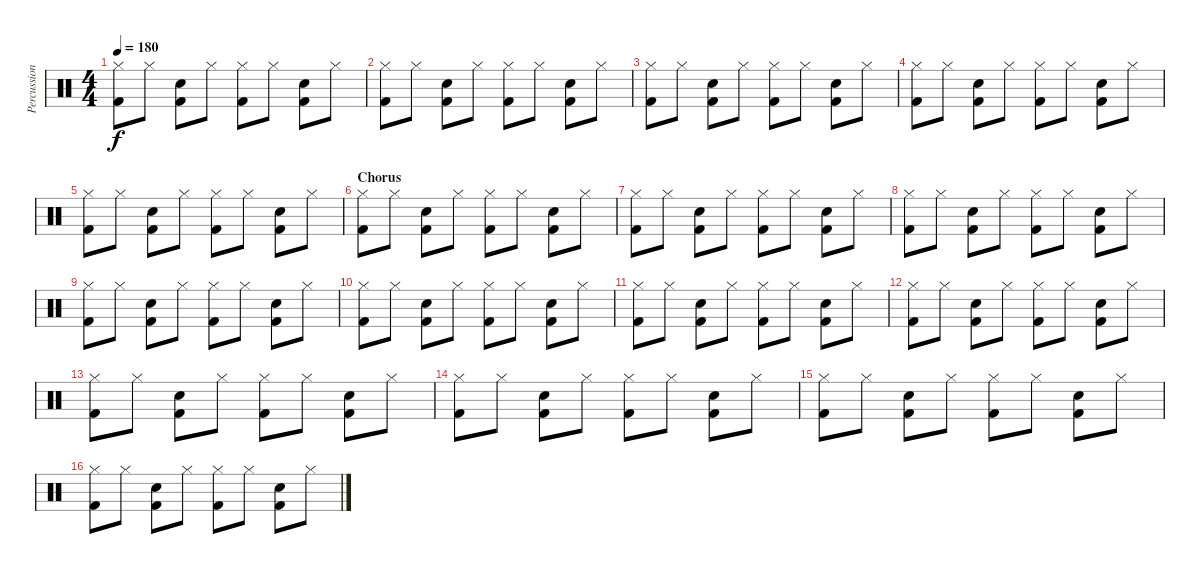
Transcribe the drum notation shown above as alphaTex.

\track ("Percussion" "Percussion") {instrument percussion}
\staff {score}
\articulation defaults
\ts (4 4)
\tempo 180
\clef neutral
\ks c
("Kick (hit) 2" "Hi-Hat (closed)").8{dy f} "Hi-Hat (closed)".8 ("Kick (hit) 2" "Snare (hit) 2").8 "Hi-Hat (closed)".8 ("Kick (hit) 2" "Hi-Hat (closed)").8 "Hi-Hat (closed)".8 ("Kick (hit) 2" "Electric Snare (hit)").8 "Hi-Hat (closed)".8 |
("Kick (hit) 2" "Hi-Hat (closed)").8 "Hi-Hat (closed)".8 ("Kick (hit) 2" "Snare (hit) 2").8 "Hi-Hat (closed)".8 ("Kick (hit) 2" "Hi-Hat (closed)").8 "Hi-Hat (closed)".8 ("Kick (hit) 2" "Electric Snare (hit)").8 "Hi-Hat (closed)".8 |
("Kick (hit) 2" "Hi-Hat (closed)").8 "Hi-Hat (closed)".8 ("Kick (hit) 2" "Snare (hit) 2").8 "Hi-Hat (closed)".8 ("Kick (hit) 2" "Hi-Hat (closed)").8 "Hi-Hat (closed)".8 ("Kick (hit) 2" "Electric Snare (hit)").8 "Hi-Hat (closed)".8 |
("Kick (hit) 2" "Hi-Hat (closed)").8 "Hi-Hat (closed)".8 ("Kick (hit) 2" "Snare (hit) 2").8 "Hi-Hat (closed)".8 ("Kick (hit) 2" "Hi-Hat (closed)").8 "Hi-Hat (closed)".8 ("Kick (hit) 2" "Electric Snare (hit)").8 "Hi-Hat (closed)".8 |
("Kick (hit) 2" "Hi-Hat (closed)").8 "Hi-Hat (closed)".8 ("Kick (hit) 2" "Snare (hit) 2").8 "Hi-Hat (closed)".8 ("Kick (hit) 2" "Hi-Hat (closed)").8 "Hi-Hat (closed)".8 ("Kick (hit) 2" "Electric Snare (hit)").8 "Hi-Hat (closed)".8 |
\section ("" "Chorus")
("Kick (hit) 2" "Hi-Hat (closed)").8 "Hi-Hat (closed)".8 ("Kick (hit) 2" "Snare (hit) 2").8 "Hi-Hat (closed)".8 ("Kick (hit) 2" "Hi-Hat (closed)").8 "Hi-Hat (closed)".8 ("Kick (hit) 2" "Electric Snare (hit)").8 "Hi-Hat (closed)".8 |
("Kick (hit) 2" "Hi-Hat (closed)").8 "Hi-Hat (closed)".8 ("Kick (hit) 2" "Snare (hit) 2").8 "Hi-Hat (closed)".8 ("Kick (hit) 2" "Hi-Hat (closed)").8 "Hi-Hat (closed)".8 ("Kick (hit) 2" "Electric Snare (hit)").8 "Hi-Hat (closed)".8 |
("Kick (hit) 2" "Hi-Hat (closed)").8 "Hi-Hat (closed)".8 ("Kick (hit) 2" "Snare (hit) 2").8 "Hi-Hat (closed)".8 ("Kick (hit) 2" "Hi-Hat (closed)").8 "Hi-Hat (closed)".8 ("Kick (hit) 2" "Electric Snare (hit)").8 "Hi-Hat (closed)".8 |
("Kick (hit) 2" "Hi-Hat (closed)").8 "Hi-Hat (closed)".8 ("Kick (hit) 2" "Snare (hit) 2").8 "Hi-Hat (closed)".8 ("Kick (hit) 2" "Hi-Hat (closed)").8 "Hi-Hat (closed)".8 ("Kick (hit) 2" "Electric Snare (hit)").8 "Hi-Hat (closed)".8 |
("Kick (hit) 2" "Hi-Hat (closed)").8 "Hi-Hat (closed)".8 ("Kick (hit) 2" "Snare (hit) 2").8 "Hi-Hat (closed)".8 ("Kick (hit) 2" "Hi-Hat (closed)").8 "Hi-Hat (closed)".8 ("Kick (hit) 2" "Electric Snare (hit)").8 "Hi-Hat (closed)".8 |
("Kick (hit) 2" "Hi-Hat (closed)").8 "Hi-Hat (closed)".8 ("Kick (hit) 2" "Snare (hit) 2").8 "Hi-Hat (closed)".8 ("Kick (hit) 2" "Hi-Hat (closed)").8 "Hi-Hat (closed)".8 ("Kick (hit) 2" "Electric Snare (hit)").8 "Hi-Hat (closed)".8 |
("Kick (hit) 2" "Hi-Hat (closed)").8 "Hi-Hat (closed)".8 ("Kick (hit) 2" "Snare (hit) 2").8 "Hi-Hat (closed)".8 ("Kick (hit) 2" "Hi-Hat (closed)").8 "Hi-Hat (closed)".8 ("Kick (hit) 2" "Electric Snare (hit)").8 "Hi-Hat (closed)".8 |
("Kick (hit) 2" "Hi-Hat (closed)").8 "Hi-Hat (closed)".8 ("Kick (hit) 2" "Snare (hit) 2").8 "Hi-Hat (closed)".8 ("Kick (hit) 2" "Hi-Hat (closed)").8 "Hi-Hat (closed)".8 ("Kick (hit) 2" "Electric Snare (hit)").8 "Hi-Hat (closed)".8 |
("Kick (hit) 2" "Hi-Hat (closed)").8 "Hi-Hat (closed)".8 ("Kick (hit) 2" "Snare (hit) 2").8 "Hi-Hat (closed)".8 ("Kick (hit) 2" "Hi-Hat (closed)").8 "Hi-Hat (closed)".8 ("Kick (hit) 2" "Electric Snare (hit)").8 "Hi-Hat (closed)".8 |
("Kick (hit) 2" "Hi-Hat (closed)").8 "Hi-Hat (closed)".8 ("Kick (hit) 2" "Snare (hit) 2").8 "Hi-Hat (closed)".8 ("Kick (hit) 2" "Hi-Hat (closed)").8 "Hi-Hat (closed)".8 ("Kick (hit) 2" "Electric Snare (hit)").8 "Hi-Hat (closed)".8 |
("Kick (hit) 2" "Hi-Hat (closed)").8 "Hi-Hat (closed)".8 ("Kick (hit) 2" "Snare (hit) 2").8 "Hi-Hat (closed)".8 ("Kick (hit) 2" "Hi-Hat (closed)").8 "Hi-Hat (closed)".8 ("Kick (hit) 2" "Electric Snare (hit)").8 "Hi-Hat (closed)".8
